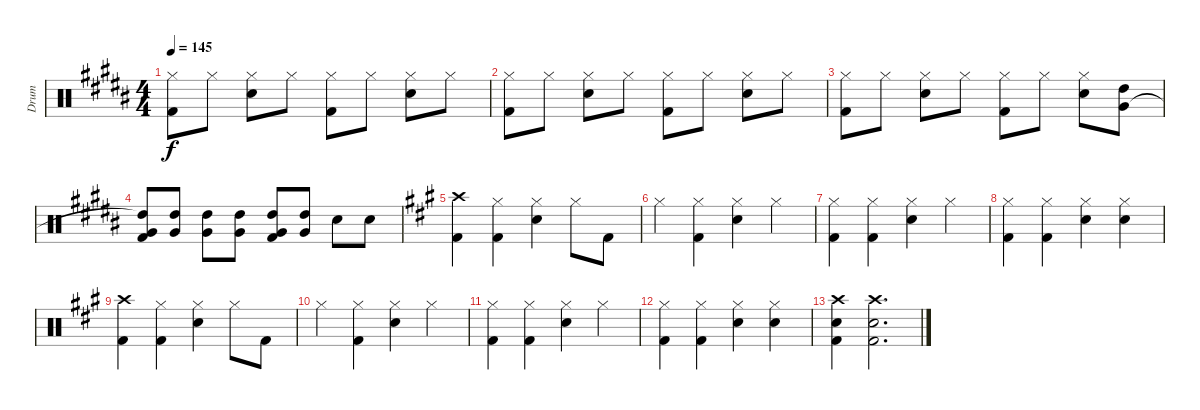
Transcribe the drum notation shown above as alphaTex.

\track ("Drum" "Drum") {instrument percussion}
\staff {score}
\articulation defaults
\ts (4 4)
\tempo 145
\clef neutral
\ks b
("Hi-Hat (closed)" "Kick (hit) 2").8{dy f} "Hi-Hat (closed)".8 ("Hi-Hat (closed)" "Electric Snare (hit)").8 "Hi-Hat (closed)".8 ("Hi-Hat (closed)" "Kick (hit) 2").8 "Hi-Hat (closed)".8 ("Hi-Hat (closed)" "Electric Snare (hit)").8 "Hi-Hat (closed)".8 |
("Hi-Hat (closed)" "Kick (hit) 2").8 "Hi-Hat (closed)".8 ("Hi-Hat (closed)" "Electric Snare (hit)").8 "Hi-Hat (closed)".8 ("Hi-Hat (closed)" "Kick (hit) 2").8 "Hi-Hat (closed)".8 ("Hi-Hat (closed)" "Electric Snare (hit)").8 "Hi-Hat (closed)".8 |
("Hi-Hat (closed)" "Kick (hit) 2").8 "Hi-Hat (closed)".8 ("Hi-Hat (closed)" "Electric Snare (hit)").8 "Hi-Hat (closed)".8 ("Hi-Hat (closed)" "Kick (hit) 2").8 "Hi-Hat (closed)".8 ("Hi-Hat (closed)" "Electric Snare (hit)").8 ("High Tom (hit)" "Very Low Tom (hit)").8 |
("Kick (hit) 2" "High Tom (hit)"{t} "Very Low Tom (hit)").8 ("High Tom (hit)" "Very Low Tom (hit)").8 ("High Tom (hit)" "Very Low Tom (hit)").8 ("High Tom (hit)" "Very Low Tom (hit)").8 ("Kick (hit) 2" "High Tom (hit)" "Very Low Tom (hit)").8 ("High Tom (hit)" "Very Low Tom (hit)").8 "Electric Snare (hit)".8 "Electric Snare (hit)".8 |
\ks a
("Kick (hit) 2" "Crash high (hit)").4 ("Hi-Hat (closed)" "Kick (hit) 2").4 ("Hi-Hat (closed)" "Electric Snare (hit)").4 "Hi-Hat (closed)".8 "Kick (hit) 2".8 |
"Hi-Hat (closed)".4 ("Hi-Hat (closed)" "Kick (hit) 2").4 ("Hi-Hat (closed)" "Electric Snare (hit)").4 "Hi-Hat (closed)".4 |
("Hi-Hat (closed)" "Kick (hit) 2").4 ("Hi-Hat (closed)" "Kick (hit) 2").4 ("Hi-Hat (closed)" "Electric Snare (hit)").4 "Hi-Hat (closed)".4 |
("Hi-Hat (closed)" "Kick (hit) 2").4 ("Hi-Hat (closed)" "Kick (hit) 2").4 ("Hi-Hat (closed)" "Electric Snare (hit)").4 ("Hi-Hat (closed)" "Electric Snare (hit)").4 |
("Kick (hit) 2" "Crash high (hit)").4 ("Hi-Hat (closed)" "Kick (hit) 2").4 ("Hi-Hat (closed)" "Electric Snare (hit)").4 "Hi-Hat (closed)".8 "Kick (hit) 2".8 |
"Hi-Hat (closed)".4 ("Hi-Hat (closed)" "Kick (hit) 2").4 ("Hi-Hat (closed)" "Electric Snare (hit)").4 "Hi-Hat (closed)".4 |
("Hi-Hat (closed)" "Kick (hit) 2").4 ("Hi-Hat (closed)" "Kick (hit) 2").4 ("Hi-Hat (closed)" "Electric Snare (hit)").4 "Hi-Hat (closed)".4 |
("Hi-Hat (closed)" "Kick (hit) 2").4 ("Hi-Hat (closed)" "Kick (hit) 2").4 ("Hi-Hat (closed)" "Electric Snare (hit)").4 ("Hi-Hat (closed)" "Electric Snare (hit)").4 |
("Crash high (hit)" "Electric Snare (hit)" "Kick (hit) 2").4 ("Crash high (hit)" "Electric Snare (hit)" "Kick (hit) 2").2{d}
